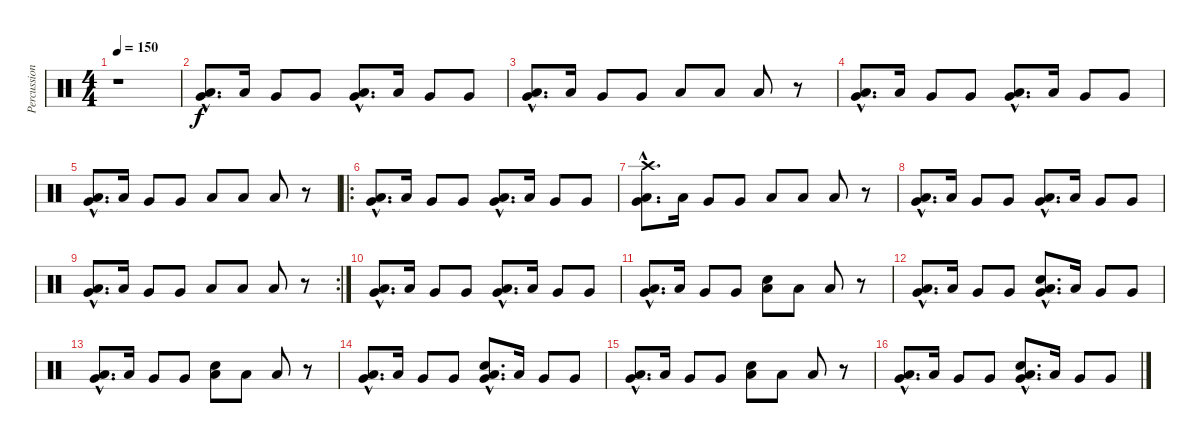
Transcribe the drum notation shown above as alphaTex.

\track ("Percussions" "Percussion") {instrument percussion}
\staff {score}
\articulation defaults
\ts (4 4)
\tempo 150
\clef neutral
\ks c
r.1{dy f} |
("Very Low Tom (hit)"{hac} "Low Floor Tom (hit)"{hac}).8{d} "Low Floor Tom (hit)".16 "Very Low Tom (hit)".8 "Very Low Tom (hit)".8 ("Very Low Tom (hit)"{hac} "Low Floor Tom (hit)"{hac}).8{d} "Low Floor Tom (hit)".16 "Very Low Tom (hit)".8 "Very Low Tom (hit)".8 |
("Very Low Tom (hit)"{hac} "Low Floor Tom (hit)"{hac}).8{d} "Low Floor Tom (hit)".16 "Very Low Tom (hit)".8 "Very Low Tom (hit)".8 "Low Floor Tom (hit)".8 "Low Floor Tom (hit)".8 "Low Floor Tom (hit)".8 r.8 |
("Very Low Tom (hit)"{hac} "Low Floor Tom (hit)"{hac}).8{d} "Low Floor Tom (hit)".16 "Very Low Tom (hit)".8 "Very Low Tom (hit)".8 ("Very Low Tom (hit)"{hac} "Low Floor Tom (hit)"{hac}).8{d} "Low Floor Tom (hit)".16 "Very Low Tom (hit)".8 "Very Low Tom (hit)".8 |
("Very Low Tom (hit)"{hac} "Low Floor Tom (hit)"{hac}).8{d} "Low Floor Tom (hit)".16 "Very Low Tom (hit)".8 "Very Low Tom (hit)".8 "Low Floor Tom (hit)".8 "Low Floor Tom (hit)".8 "Low Floor Tom (hit)".8 r.8 |
\ro
("Very Low Tom (hit)"{hac} "Low Floor Tom (hit)"{hac}).8{d} "Low Floor Tom (hit)".16 "Very Low Tom (hit)".8 "Very Low Tom (hit)".8 ("Very Low Tom (hit)"{hac} "Low Floor Tom (hit)"{hac}).8{d} "Low Floor Tom (hit)".16 "Very Low Tom (hit)".8 "Very Low Tom (hit)".8 |
("Very Low Tom (hit)"{hac} "Low Floor Tom (hit)"{hac} "Crash high (hit)"{hac}).8{d} "Low Floor Tom (hit)".16 "Very Low Tom (hit)".8 "Very Low Tom (hit)".8 "Low Floor Tom (hit)".8 "Low Floor Tom (hit)".8 "Low Floor Tom (hit)".8 r.8 |
("Very Low Tom (hit)"{hac} "Low Floor Tom (hit)"{hac}).8{d} "Low Floor Tom (hit)".16 "Very Low Tom (hit)".8 "Very Low Tom (hit)".8 ("Very Low Tom (hit)"{hac} "Low Floor Tom (hit)"{hac}).8{d} "Low Floor Tom (hit)".16 "Very Low Tom (hit)".8 "Very Low Tom (hit)".8 |
\rc 2
("Very Low Tom (hit)"{hac} "Low Floor Tom (hit)"{hac}).8{d} "Low Floor Tom (hit)".16 "Very Low Tom (hit)".8 "Very Low Tom (hit)".8 "Low Floor Tom (hit)".8 "Low Floor Tom (hit)".8 "Low Floor Tom (hit)".8 r.8 |
("Very Low Tom (hit)"{hac} "Low Floor Tom (hit)"{hac}).8{d} "Low Floor Tom (hit)".16 "Very Low Tom (hit)".8 "Very Low Tom (hit)".8 ("Very Low Tom (hit)"{hac} "Low Floor Tom (hit)"{hac}).8{d} "Low Floor Tom (hit)".16 "Very Low Tom (hit)".8 "Very Low Tom (hit)".8 |
("Very Low Tom (hit)"{hac} "Low Floor Tom (hit)"{hac}).8{d} "Low Floor Tom (hit)".16 "Very Low Tom (hit)".8 "Very Low Tom (hit)".8 ("Low Floor Tom (hit)" "Snare (hit) 2").8 "Low Floor Tom (hit)".8 "Low Floor Tom (hit)".8 r.8 |
("Very Low Tom (hit)"{hac} "Low Floor Tom (hit)"{hac}).8{d} "Low Floor Tom (hit)".16 "Very Low Tom (hit)".8 "Very Low Tom (hit)".8 ("Very Low Tom (hit)"{hac} "Low Floor Tom (hit)"{hac} "Snare (hit) 2"{hac}).8{d} "Low Floor Tom (hit)".16 "Very Low Tom (hit)".8 "Very Low Tom (hit)".8 |
("Very Low Tom (hit)"{hac} "Low Floor Tom (hit)"{hac}).8{d} "Low Floor Tom (hit)".16 "Very Low Tom (hit)".8 "Very Low Tom (hit)".8 ("Low Floor Tom (hit)" "Snare (hit) 2").8 "Low Floor Tom (hit)".8 "Low Floor Tom (hit)".8 r.8 |
("Very Low Tom (hit)"{hac} "Low Floor Tom (hit)"{hac}).8{d} "Low Floor Tom (hit)".16 "Very Low Tom (hit)".8 "Very Low Tom (hit)".8 ("Very Low Tom (hit)"{hac} "Low Floor Tom (hit)"{hac} "Snare (hit) 2"{hac}).8{d} "Low Floor Tom (hit)".16 "Very Low Tom (hit)".8 "Very Low Tom (hit)".8 |
("Very Low Tom (hit)"{hac} "Low Floor Tom (hit)"{hac}).8{d} "Low Floor Tom (hit)".16 "Very Low Tom (hit)".8 "Very Low Tom (hit)".8 ("Low Floor Tom (hit)" "Snare (hit) 2").8 "Low Floor Tom (hit)".8 "Low Floor Tom (hit)".8 r.8 |
("Very Low Tom (hit)"{hac} "Low Floor Tom (hit)"{hac}).8{d} "Low Floor Tom (hit)".16 "Very Low Tom (hit)".8 "Very Low Tom (hit)".8 ("Very Low Tom (hit)"{hac} "Low Floor Tom (hit)"{hac} "Snare (hit) 2"{hac}).8{d} "Low Floor Tom (hit)".16 "Very Low Tom (hit)".8 "Very Low Tom (hit)".8
